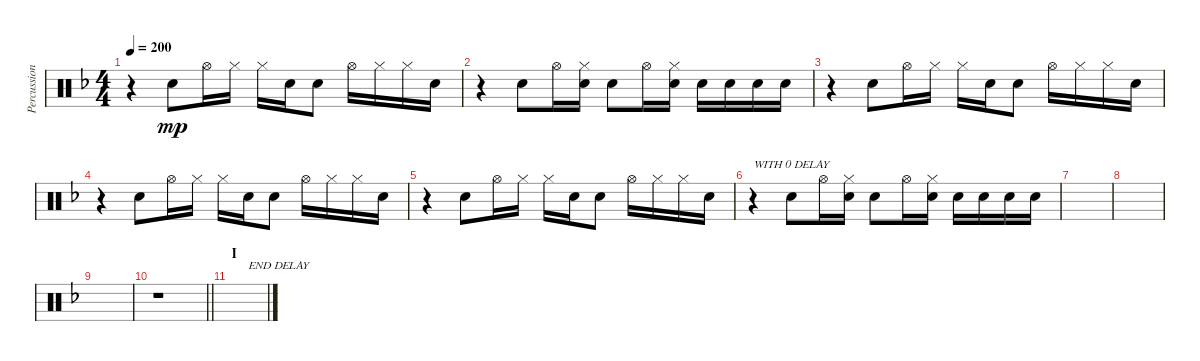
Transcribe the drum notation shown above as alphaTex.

\track ("Percussion (Tainaka Ritsu)" "Percussion") {instrument percussion}
\staff {score}
\articulation defaults
\ts (4 4)
\tempo 200
\clef neutral
\ks f
r.4{dy mp} "Electric Snare (hit)".8 "Hi-Hat (open)".16 "Hi-Hat (closed)".16 "Hi-Hat (closed)".16 "Electric Snare (hit)".16 "Electric Snare (hit)".8 "Hi-Hat (open)".16 "Hi-Hat (closed)".16 "Hi-Hat (closed)".16 "Electric Snare (hit)".16 |
r.4 "Electric Snare (hit)".8 "Hi-Hat (open)".16 ("Hi-Hat (closed)" "Electric Snare (hit)").16 "Electric Snare (hit)".8 "Hi-Hat (open)".16 ("Hi-Hat (closed)" "Electric Snare (hit)").16 "Electric Snare (hit)".16 "Electric Snare (hit)".16 "Electric Snare (hit)".16 "Electric Snare (hit)".16 |
r.4 "Electric Snare (hit)".8 "Hi-Hat (open)".16 "Hi-Hat (closed)".16 "Hi-Hat (closed)".16 "Electric Snare (hit)".16 "Electric Snare (hit)".8 "Hi-Hat (open)".16 "Hi-Hat (closed)".16 "Hi-Hat (closed)".16 "Electric Snare (hit)".16 |
r.4 "Electric Snare (hit)".8 "Hi-Hat (open)".16 "Hi-Hat (closed)".16 "Hi-Hat (closed)".16 "Electric Snare (hit)".16 "Electric Snare (hit)".8 "Hi-Hat (open)".16 "Hi-Hat (closed)".16 "Hi-Hat (closed)".16 "Electric Snare (hit)".16 |
r.4 "Electric Snare (hit)".8 "Hi-Hat (open)".16 "Hi-Hat (closed)".16 "Hi-Hat (closed)".16 "Electric Snare (hit)".16 "Electric Snare (hit)".8 "Hi-Hat (open)".16 "Hi-Hat (closed)".16 "Hi-Hat (closed)".16 "Electric Snare (hit)".16 |
r.4{txt "WITH 0 DELAY"} "Electric Snare (hit)".8 "Hi-Hat (open)".16 ("Hi-Hat (closed)" "Electric Snare (hit)").16 "Electric Snare (hit)".8 "Hi-Hat (open)".16 ("Hi-Hat (closed)" "Electric Snare (hit)").16 "Electric Snare (hit)".16 "Electric Snare (hit)".16 "Electric Snare (hit)".16 "Electric Snare (hit)".16 |
|
|
|
\barLineRight lightlight
r.1{txt "                              END DELAY"} |
\section ("" "I")
